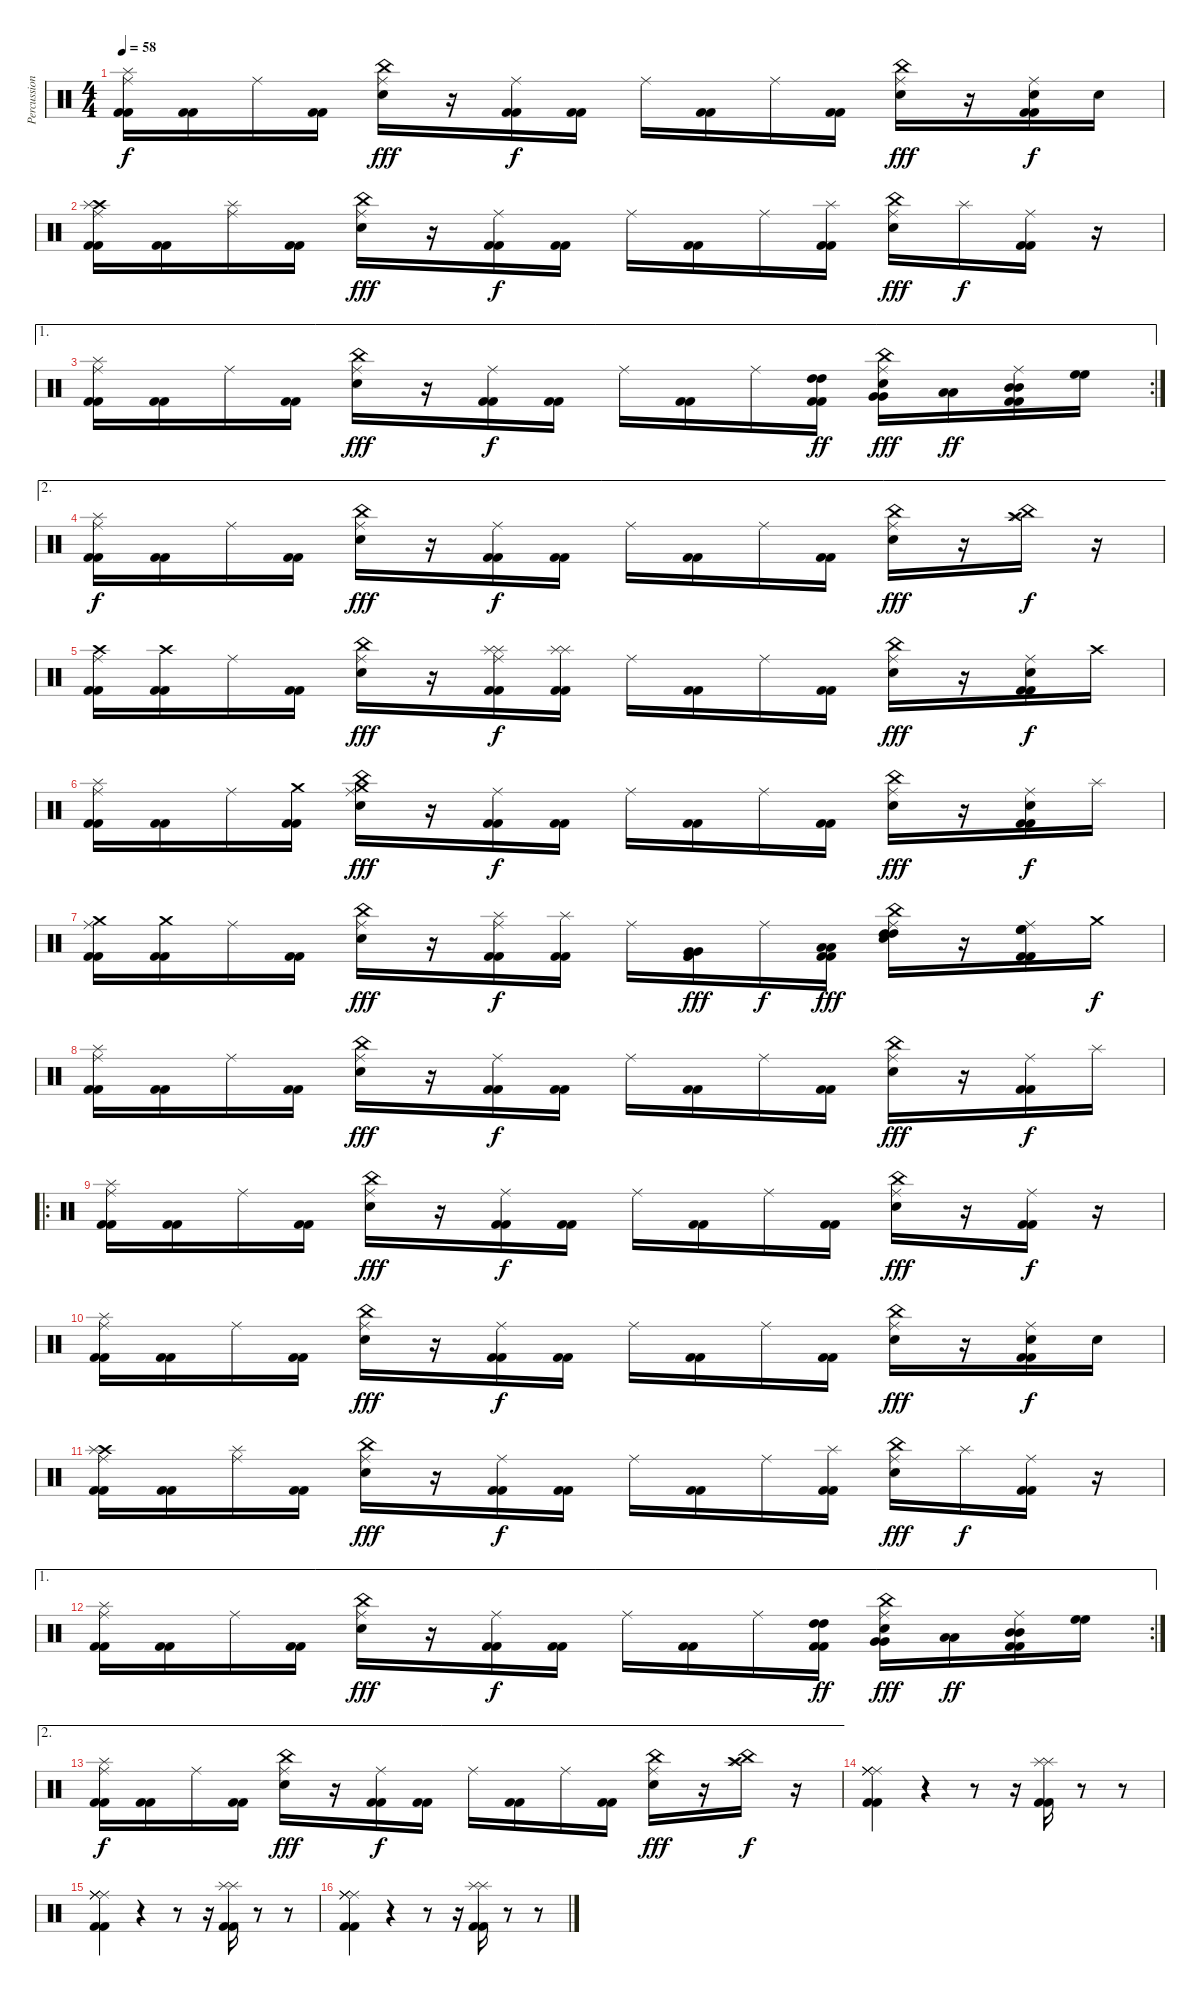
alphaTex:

\track ("Percussion" "Percussion") {instrument percussion}
\staff {score}
\articulation defaults
\ts (4 4)
\tempo 58
\clef neutral
\ks c
("Ride (middle)" "Splash (hit)" "Kick (hit) 2" "Kick (hit) 2").16{dy f} ("Kick (hit) 2" "Kick (hit) 2").16 "Ride (middle)".16 ("Kick (hit) 2" "Kick (hit) 2").16 ("Ride (middle)" "China (hit)" "Snare (hit) 2").16{dy fff} r.16 ("Ride (middle)" "Kick (hit) 2" "Kick (hit) 2").16{dy f} ("Kick (hit) 2" "Kick (hit) 2").16 "Ride (middle)".16 ("Kick (hit) 2" "Kick (hit) 2").16 "Ride (middle)".16 ("Kick (hit) 2" "Kick (hit) 2").16 ("Ride (middle)" "China (hit)" "Snare (hit) 2").16{dy fff} r.16 ("Ride (middle)" "Snare (hit) 2" "Kick (hit) 2" "Kick (hit) 2").16{dy f} "Snare (hit) 2".16 |
("Ride (middle)" "Crash high (hit)" "Splash (hit)" "Kick (hit) 2" "Kick (hit) 2").16 ("Kick (hit) 2" "Kick (hit) 2").16 ("Ride (middle)" "Splash (hit)").16 ("Kick (hit) 2" "Kick (hit) 2").16 ("Ride (middle)" "China (hit)" "Snare (hit) 2").16{dy fff} r.16 ("Ride (middle)" "Kick (hit) 2" "Kick (hit) 2").16{dy f} ("Kick (hit) 2" "Kick (hit) 2").16 "Ride (middle)".16 ("Kick (hit) 2" "Kick (hit) 2").16 "Ride (middle)".16 ("Splash (hit)" "Kick (hit) 2" "Kick (hit) 2").16 ("Ride (middle)" "China (hit)" "Snare (hit) 2").16{dy fff} "Splash (hit)".16{dy f} ("Ride (middle)" "Kick (hit) 2" "Kick (hit) 2").16 r.16 |
\ae 1
\rc 2
("Ride (middle)" "Splash (hit)" "Kick (hit) 2" "Kick (hit) 2").16 ("Kick (hit) 2" "Kick (hit) 2").16 "Ride (middle)".16 ("Kick (hit) 2" "Kick (hit) 2").16 ("Ride (middle)" "China (hit)" "Snare (hit) 2").16{dy fff} r.16 ("Ride (middle)" "Kick (hit) 2" "Kick (hit) 2").16{dy f} ("Kick (hit) 2" "Kick (hit) 2").16 "Ride (middle)".16 ("Kick (hit) 2" "Kick (hit) 2").16 "Ride (middle)".16 ("High Tom (hit)" "High Tom (hit)" "Kick (hit) 2" "Kick (hit) 2").16{dy ff} ("Ride (middle)" "Very Low Tom (hit)" "Very Low Tom (hit)" "China (hit)" "Snare (hit) 2").16{dy fff} ("Low Tom (hit)" "Low Tom (hit)").16{dy ff} ("Ride (middle)" "Mid Tom (hit)" "Mid Tom (hit)" "Kick (hit) 2" "Kick (hit) 2").16 ("High Floor Tom (hit)" "High Floor Tom (hit)").16 |
\ae 2
("Ride (middle)" "Splash (hit)" "Kick (hit) 2" "Kick (hit) 2").16{dy f} ("Kick (hit) 2" "Kick (hit) 2").16 "Ride (middle)".16 ("Kick (hit) 2" "Kick (hit) 2").16 ("Ride (middle)" "China (hit)" "Snare (hit) 2").16{dy fff} r.16 ("Ride (middle)" "Kick (hit) 2" "Kick (hit) 2").16{dy f} ("Kick (hit) 2" "Kick (hit) 2").16 "Ride (middle)".16 ("Kick (hit) 2" "Kick (hit) 2").16 "Ride (middle)".16 ("Kick (hit) 2" "Kick (hit) 2").16 ("Ride (middle)" "China (hit)" "Snare (hit) 2").16{dy fff} r.16 ("China (hit)" "Splash (hit)" "Crash high (hit)").16{dy f} r.16 |
("Ride (middle)" "Crash high (hit)" "Kick (hit) 2" "Kick (hit) 2").16 ("Crash high (hit)" "Kick (hit) 2" "Kick (hit) 2").16 "Ride (middle)".16 ("Kick (hit) 2" "Kick (hit) 2").16 ("Ride (middle)" "China (hit)" "Snare (hit) 2").16{dy fff} r.16 ("Ride (middle)" "Splash (hit)" "Splash (hit)" "Kick (hit) 2" "Kick (hit) 2").16{dy f} ("Splash (hit)" "Splash (hit)" "Kick (hit) 2" "Kick (hit) 2").16 "Ride (middle)".16 ("Kick (hit) 2" "Kick (hit) 2").16 "Ride (middle)".16 ("Kick (hit) 2" "Kick (hit) 2").16 ("Ride (middle)" "China (hit)" "Snare (hit) 2").16{dy fff} r.16 ("Ride (middle)" "Snare (hit) 2" "Kick (hit) 2" "Kick (hit) 2").16{dy f} "Crash high (hit)".16 |
("Ride (middle)" "Splash (hit)" "Kick (hit) 2" "Kick (hit) 2").16 ("Kick (hit) 2" "Kick (hit) 2").16 "Ride (middle)".16 ("Crash medium (hit)" "Kick (hit) 2" "Kick (hit) 2").16 ("Ride (middle)" "Crash medium (hit)" "China (hit)" "Snare (hit) 2").16{dy fff} r.16 ("Ride (middle)" "Kick (hit) 2" "Kick (hit) 2").16{dy f} ("Kick (hit) 2" "Kick (hit) 2").16 "Ride (middle)".16 ("Kick (hit) 2" "Kick (hit) 2").16 "Ride (middle)".16 ("Kick (hit) 2" "Kick (hit) 2").16 ("Ride (middle)" "China (hit)" "Snare (hit) 2").16{dy fff} r.16 ("Ride (middle)" "Snare (hit) 2" "Kick (hit) 2" "Kick (hit) 2").16{dy f} "Splash (hit)".16 |
("Ride (middle)" "Crash medium (hit)" "Kick (hit) 2" "Kick (hit) 2").16 ("Crash medium (hit)" "Kick (hit) 2" "Kick (hit) 2").16 "Ride (middle)".16 ("Kick (hit) 2" "Kick (hit) 2").16 ("Ride (middle)" "China (hit)" "Snare (hit) 2").16{dy fff} r.16 ("Ride (middle)" "Splash (hit)" "Kick (hit) 2" "Kick (hit) 2").16{dy f} ("Splash (hit)" "Kick (hit) 2" "Kick (hit) 2").16 "Ride (middle)".16 ("Very Low Tom (hit)" "Very Low Tom (hit)" "Kick (hit) 2" "Kick (hit) 2").16{dy fff} "Ride (middle)".16{dy f} ("Low Tom (hit)" "Low Tom (hit)" "Kick (hit) 2" "Kick (hit) 2").16{dy fff} ("Ride (middle)" "High Tom (hit)" "High Tom (hit)" "China (hit)" "Snare (hit) 2").16 r.16 ("Ride (middle)" "High Floor Tom (hit)" "High Floor Tom (hit)" "Kick (hit) 2" "Kick (hit) 2").16 "Crash medium (hit)".16{dy f} |
("Ride (middle)" "Splash (hit)" "Kick (hit) 2" "Kick (hit) 2").16 ("Kick (hit) 2" "Kick (hit) 2").16 "Ride (middle)".16 ("Kick (hit) 2" "Kick (hit) 2").16 ("Ride (middle)" "China (hit)" "Snare (hit) 2").16{dy fff} r.16 ("Ride (middle)" "Kick (hit) 2" "Kick (hit) 2").16{dy f} ("Kick (hit) 2" "Kick (hit) 2").16 "Ride (middle)".16 ("Kick (hit) 2" "Kick (hit) 2").16 "Ride (middle)".16 ("Kick (hit) 2" "Kick (hit) 2").16 ("Ride (middle)" "China (hit)" "Snare (hit) 2").16{dy fff} r.16 ("Ride (middle)" "Kick (hit) 2" "Kick (hit) 2").16{dy f} "Splash (hit)".16 |
\ro
("Ride (middle)" "Splash (hit)" "Kick (hit) 2" "Kick (hit) 2").16 ("Kick (hit) 2" "Kick (hit) 2").16 "Ride (middle)".16 ("Kick (hit) 2" "Kick (hit) 2").16 ("Ride (middle)" "China (hit)" "Snare (hit) 2").16{dy fff} r.16 ("Ride (middle)" "Kick (hit) 2" "Kick (hit) 2").16{dy f} ("Kick (hit) 2" "Kick (hit) 2").16 "Ride (middle)".16 ("Kick (hit) 2" "Kick (hit) 2").16 "Ride (middle)".16 ("Kick (hit) 2" "Kick (hit) 2").16 ("Ride (middle)" "China (hit)" "Snare (hit) 2").16{dy fff} r.16 ("Ride (middle)" "Kick (hit) 2" "Kick (hit) 2").16{dy f} r.16 |
("Ride (middle)" "Splash (hit)" "Kick (hit) 2" "Kick (hit) 2").16 ("Kick (hit) 2" "Kick (hit) 2").16 "Ride (middle)".16 ("Kick (hit) 2" "Kick (hit) 2").16 ("Ride (middle)" "China (hit)" "Snare (hit) 2").16{dy fff} r.16 ("Ride (middle)" "Kick (hit) 2" "Kick (hit) 2").16{dy f} ("Kick (hit) 2" "Kick (hit) 2").16 "Ride (middle)".16 ("Kick (hit) 2" "Kick (hit) 2").16 "Ride (middle)".16 ("Kick (hit) 2" "Kick (hit) 2").16 ("Ride (middle)" "China (hit)" "Snare (hit) 2").16{dy fff} r.16 ("Ride (middle)" "Snare (hit) 2" "Kick (hit) 2" "Kick (hit) 2").16{dy f} "Snare (hit) 2".16 |
("Ride (middle)" "Crash high (hit)" "Splash (hit)" "Kick (hit) 2" "Kick (hit) 2").16 ("Kick (hit) 2" "Kick (hit) 2").16 ("Ride (middle)" "Splash (hit)").16 ("Kick (hit) 2" "Kick (hit) 2").16 ("Ride (middle)" "China (hit)" "Snare (hit) 2").16{dy fff} r.16 ("Ride (middle)" "Kick (hit) 2" "Kick (hit) 2").16{dy f} ("Kick (hit) 2" "Kick (hit) 2").16 "Ride (middle)".16 ("Kick (hit) 2" "Kick (hit) 2").16 "Ride (middle)".16 ("Splash (hit)" "Kick (hit) 2" "Kick (hit) 2").16 ("Ride (middle)" "China (hit)" "Snare (hit) 2").16{dy fff} "Splash (hit)".16{dy f} ("Ride (middle)" "Kick (hit) 2" "Kick (hit) 2").16 r.16 |
\ae 1
\rc 2
("Ride (middle)" "Splash (hit)" "Kick (hit) 2" "Kick (hit) 2").16 ("Kick (hit) 2" "Kick (hit) 2").16 "Ride (middle)".16 ("Kick (hit) 2" "Kick (hit) 2").16 ("Ride (middle)" "China (hit)" "Snare (hit) 2").16{dy fff} r.16 ("Ride (middle)" "Kick (hit) 2" "Kick (hit) 2").16{dy f} ("Kick (hit) 2" "Kick (hit) 2").16 "Ride (middle)".16 ("Kick (hit) 2" "Kick (hit) 2").16 "Ride (middle)".16 ("High Tom (hit)" "High Tom (hit)" "Kick (hit) 2" "Kick (hit) 2").16{dy ff} ("Ride (middle)" "Very Low Tom (hit)" "Very Low Tom (hit)" "China (hit)" "Snare (hit) 2").16{dy fff} ("Low Tom (hit)" "Low Tom (hit)").16{dy ff} ("Ride (middle)" "Mid Tom (hit)" "Mid Tom (hit)" "Kick (hit) 2" "Kick (hit) 2").16 ("High Floor Tom (hit)" "High Floor Tom (hit)").16 |
\ae 2
("Ride (middle)" "Splash (hit)" "Kick (hit) 2" "Kick (hit) 2").16{dy f} ("Kick (hit) 2" "Kick (hit) 2").16 "Ride (middle)".16 ("Kick (hit) 2" "Kick (hit) 2").16 ("Ride (middle)" "China (hit)" "Snare (hit) 2").16{dy fff} r.16 ("Ride (middle)" "Kick (hit) 2" "Kick (hit) 2").16{dy f} ("Kick (hit) 2" "Kick (hit) 2").16 "Ride (middle)".16 ("Kick (hit) 2" "Kick (hit) 2").16 "Ride (middle)".16 ("Kick (hit) 2" "Kick (hit) 2").16 ("Ride (middle)" "China (hit)" "Snare (hit) 2").16{dy fff} r.16 ("China (hit)" "Splash (hit)" "Crash high (hit)").16{dy f} r.16 |
("Ride (middle)" "Ride (middle)" "Ride (middle)" "Ride (middle)" "Kick (hit) 2" "Kick (hit) 2").4 r.4 r.8 r.16 ("Splash (hit)" "Splash (hit)" "Kick (hit) 2" "Kick (hit) 2").16 r.8 r.8 |
("Ride (middle)" "Ride (middle)" "Ride (middle)" "Ride (middle)" "Kick (hit) 2" "Kick (hit) 2").4 r.4 r.8 r.16 ("Splash (hit)" "Splash (hit)" "Kick (hit) 2" "Kick (hit) 2").16 r.8 r.8 |
("Ride (middle)" "Ride (middle)" "Ride (middle)" "Ride (middle)" "Kick (hit) 2" "Kick (hit) 2").4 r.4 r.8 r.16 ("Splash (hit)" "Splash (hit)" "Kick (hit) 2" "Kick (hit) 2").16 r.8 r.8
